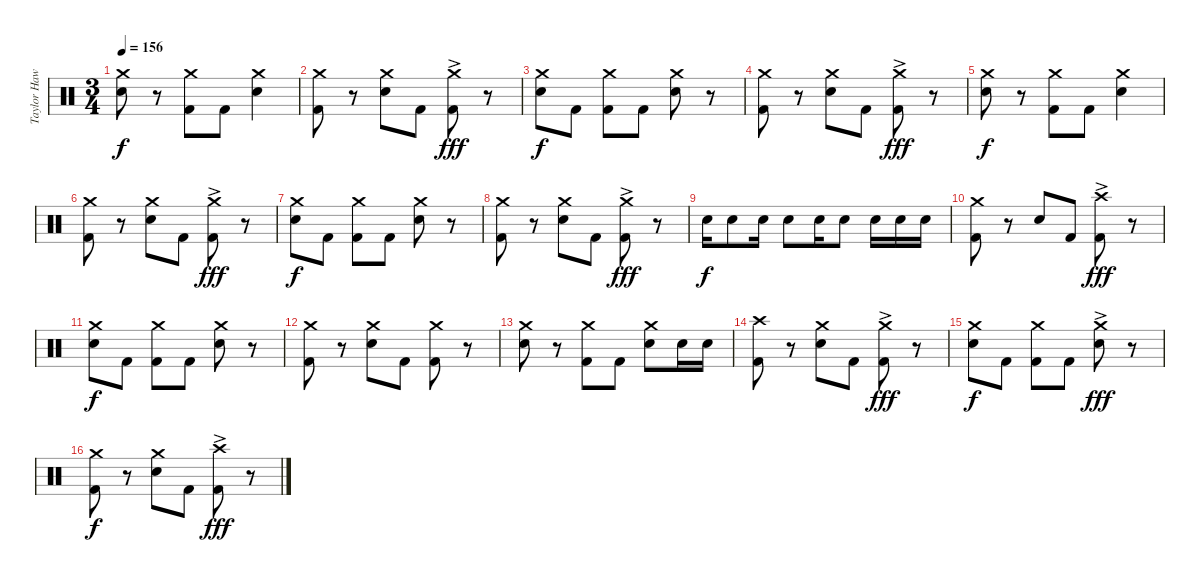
\track ("Taylor Hawkins" "Taylor Haw") {instrument percussion}
\staff {score}
\articulation defaults
\ts (3 4)
\tempo 156
\clef neutral
\ks c
("Crash medium (hit)" "Electric Snare (hit)").8{dy f} r.8 ("Crash medium (hit)" "Kick (hit) 2").8 "Kick (hit) 2".8 ("Crash medium (hit)" "Electric Snare (hit)").4 |
("Crash medium (hit)" "Kick (hit) 2").8 r.8 ("Crash medium (hit)" "Electric Snare (hit)").8 "Kick (hit) 2".8 ("Crash medium (hit)"{ac} "Kick (hit) 2").8{dy fff} r.8 |
("Crash medium (hit)" "Electric Snare (hit)").8{dy f} "Kick (hit) 2".8 ("Crash medium (hit)" "Kick (hit) 2").8 "Kick (hit) 2".8 ("Crash medium (hit)" "Electric Snare (hit)").8 r.8 |
("Crash medium (hit)" "Kick (hit) 2").8 r.8 ("Crash medium (hit)" "Electric Snare (hit)").8 "Kick (hit) 2".8 ("Crash medium (hit)"{ac} "Kick (hit) 2").8{dy fff} r.8 |
("Crash medium (hit)" "Electric Snare (hit)").8{dy f} r.8 ("Crash medium (hit)" "Kick (hit) 2").8 "Kick (hit) 2".8 ("Crash medium (hit)" "Electric Snare (hit)").4 |
("Crash medium (hit)" "Kick (hit) 2").8 r.8 ("Crash medium (hit)" "Electric Snare (hit)").8 "Kick (hit) 2".8 ("Crash medium (hit)"{ac} "Kick (hit) 2").8{dy fff} r.8 |
("Crash medium (hit)" "Electric Snare (hit)").8{dy f} "Kick (hit) 2".8 ("Crash medium (hit)" "Kick (hit) 2").8 "Kick (hit) 2".8 ("Crash medium (hit)" "Electric Snare (hit)").8 r.8 |
("Crash medium (hit)" "Kick (hit) 2").8 r.8 ("Crash medium (hit)" "Electric Snare (hit)").8 "Kick (hit) 2".8 ("Crash medium (hit)"{ac} "Kick (hit) 2").8{dy fff} r.8 |
"Electric Snare (hit)".16{dy f} "Electric Snare (hit)".8 "Electric Snare (hit)".16 "Electric Snare (hit)".8 "Electric Snare (hit)".16 "Electric Snare (hit)".8 "Electric Snare (hit)".16 "Electric Snare (hit)".16 "Electric Snare (hit)".16 |
("Crash medium (hit)" "Kick (hit) 2").8 r.8 "Electric Snare (hit)".8 "Kick (hit) 2".8 ("Crash high (hit)"{ac} "Kick (hit) 2").8{dy fff} r.8 |
("Crash medium (hit)" "Electric Snare (hit)").8{dy f} "Kick (hit) 2".8 ("Crash medium (hit)" "Kick (hit) 2").8 "Kick (hit) 2".8 ("Crash medium (hit)" "Electric Snare (hit)").8 r.8 |
("Crash medium (hit)" "Kick (hit) 2").8 r.8 ("Crash medium (hit)" "Electric Snare (hit)").8 "Kick (hit) 2".8 ("Crash medium (hit)" "Kick (hit) 2").8 r.8 |
("Crash medium (hit)" "Electric Snare (hit)").8 r.8 ("Crash medium (hit)" "Kick (hit) 2").8 "Kick (hit) 2".8 ("Crash medium (hit)" "Electric Snare (hit)").8 "Electric Snare (hit)".16 "Electric Snare (hit)".16 |
("Crash high (hit)" "Kick (hit) 2").8 r.8 ("Crash medium (hit)" "Electric Snare (hit)").8 "Kick (hit) 2".8 ("Crash medium (hit)"{ac} "Kick (hit) 2").8{dy fff} r.8 |
("Crash medium (hit)" "Electric Snare (hit)").8{dy f} "Kick (hit) 2".8 ("Crash medium (hit)" "Kick (hit) 2").8 "Kick (hit) 2".8 ("Crash medium (hit)"{ac} "Electric Snare (hit)").8{dy fff} r.8 |
("Crash medium (hit)" "Kick (hit) 2").8{dy f} r.8 ("Crash medium (hit)" "Electric Snare (hit)").8 "Kick (hit) 2".8 ("Crash high (hit)"{ac} "Kick (hit) 2").8{dy fff} r.8
